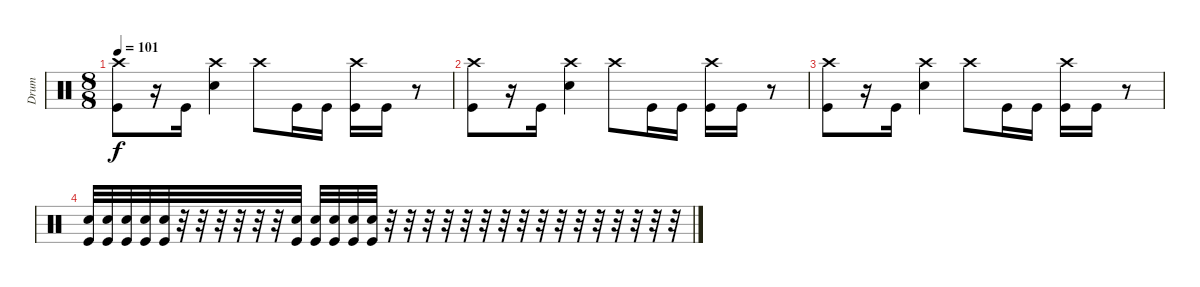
\track ("Drum" "Drum") {instrument percussion}
\staff {score}
\articulation defaults
\ts (8 8)
\tempo 101
\clef neutral
\ks c
("Crash high (hit)" "Kick (hit)").8{dy f} r.16 "Kick (hit)".16 ("Crash high (hit)" "Snare (hit) 2").4 "Crash high (hit)".8 "Kick (hit)".16 "Kick (hit)".16 ("Crash high (hit)" "Kick (hit)").16 "Kick (hit)".16 r.8 |
("Crash high (hit)" "Kick (hit)").8 r.16 "Kick (hit)".16 ("Crash high (hit)" "Snare (hit) 2").4 "Crash high (hit)".8 "Kick (hit)".16 "Kick (hit)".16 ("Crash high (hit)" "Kick (hit)").16 "Kick (hit)".16 r.8 |
("Crash high (hit)" "Kick (hit)").8 r.16 "Kick (hit)".16 ("Crash high (hit)" "Snare (hit) 2").4 "Crash high (hit)".8 "Kick (hit)".16 "Kick (hit)".16 ("Crash high (hit)" "Kick (hit)").16 "Kick (hit)".16 r.8 |
("Snare (hit) 2" "Kick (hit)").32 ("Snare (hit) 2" "Kick (hit)").32 ("Snare (hit) 2" "Kick (hit)").32 ("Snare (hit) 2" "Kick (hit)").32 ("Snare (hit) 2" "Kick (hit)").32 r.32 r.32 r.32 r.32 r.32 r.32 ("Snare (hit) 2" "Kick (hit)").32 ("Snare (hit) 2" "Kick (hit)").32 ("Snare (hit) 2" "Kick (hit)").32 ("Snare (hit) 2" "Kick (hit)").32 ("Snare (hit) 2" "Kick (hit)").32 r.32 r.32 r.32 r.32 r.32 r.32 r.32 r.32 r.32 r.32 r.32 r.32 r.32 r.32 r.32 r.32
